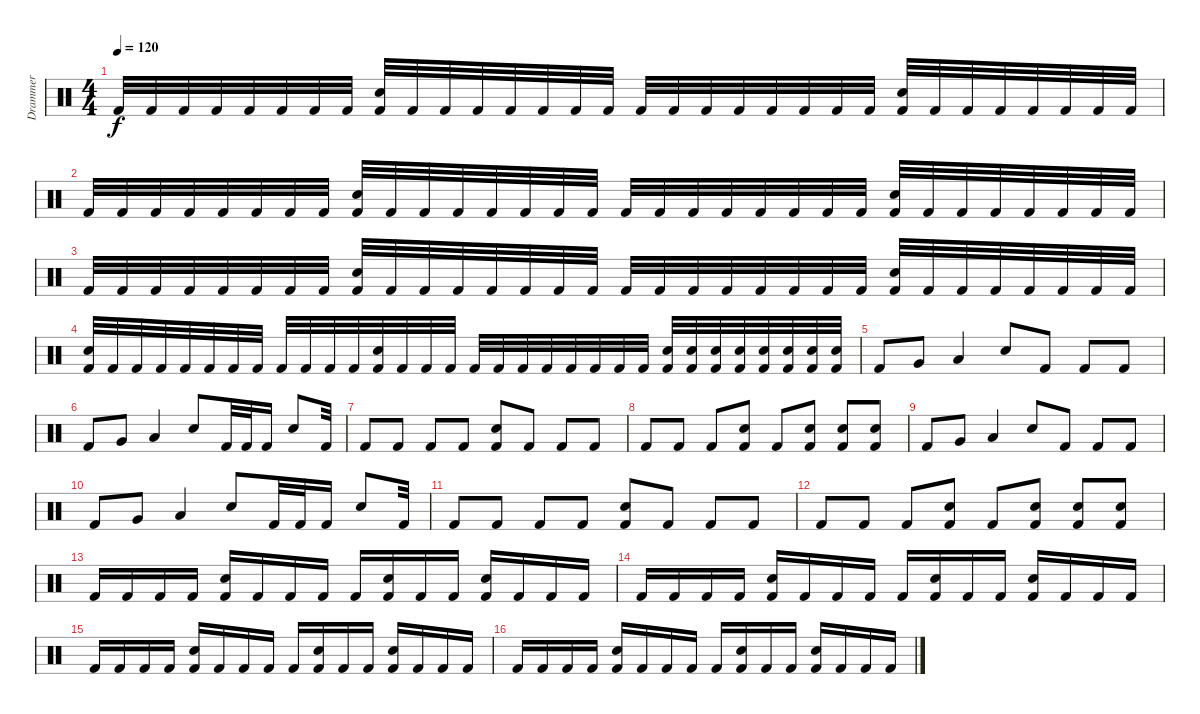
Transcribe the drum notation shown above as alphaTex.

\track ("Drammer" "Drammer") {instrument percussion}
\staff {score}
\articulation defaults
\ts (4 4)
\tempo 120
\clef neutral
\ks c "Kick (hit) 2".32{dy f} "Kick (hit) 2".32 "Kick (hit) 2".32 "Kick (hit) 2".32 "Kick (hit) 2".32 "Kick (hit) 2".32 "Kick (hit) 2".32 "Kick (hit) 2".32
("Snare (hit) 2" "Kick (hit) 2").32 "Kick (hit) 2".32 "Kick (hit) 2".32 "Kick (hit) 2".32 "Kick (hit) 2".32 "Kick (hit) 2".32 "Kick (hit) 2".32 "Kick (hit) 2".32 "Kick (hit) 2".32 "Kick (hit) 2".32 "Kick (hit) 2".32 "Kick (hit) 2".32 "Kick (hit) 2".32 "Kick (hit) 2".32 "Kick (hit) 2".32 "Kick (hit) 2".32 ("Snare (hit) 2" "Kick (hit) 2").32 "Kick (hit) 2".32 "Kick (hit) 2".32 "Kick (hit) 2".32 "Kick (hit) 2".32 "Kick (hit) 2".32 "Kick (hit) 2".32 "Kick (hit) 2".32 |
"Kick (hit) 2".32 "Kick (hit) 2".32 "Kick (hit) 2".32 "Kick (hit) 2".32 "Kick (hit) 2".32 "Kick (hit) 2".32 "Kick (hit) 2".32 "Kick (hit) 2".32 ("Snare (hit) 2" "Kick (hit) 2").32 "Kick (hit) 2".32 "Kick (hit) 2".32 "Kick (hit) 2".32 "Kick (hit) 2".32 "Kick (hit) 2".32 "Kick (hit) 2".32 "Kick (hit) 2".32 "Kick (hit) 2".32 "Kick (hit) 2".32 "Kick (hit) 2".32 "Kick (hit) 2".32 "Kick (hit) 2".32 "Kick (hit) 2".32 "Kick (hit) 2".32 "Kick (hit) 2".32 ("Snare (hit) 2" "Kick (hit) 2").32 "Kick (hit) 2".32 "Kick (hit) 2".32 "Kick (hit) 2".32 "Kick (hit) 2".32 "Kick (hit) 2".32 "Kick (hit) 2".32 "Kick (hit) 2".32 |
"Kick (hit) 2".32 "Kick (hit) 2".32 "Kick (hit) 2".32 "Kick (hit) 2".32 "Kick (hit) 2".32 "Kick (hit) 2".32 "Kick (hit) 2".32 "Kick (hit) 2".32 ("Snare (hit) 2" "Kick (hit) 2").32 "Kick (hit) 2".32 "Kick (hit) 2".32 "Kick (hit) 2".32 "Kick (hit) 2".32 "Kick (hit) 2".32 "Kick (hit) 2".32 "Kick (hit) 2".32 "Kick (hit) 2".32 "Kick (hit) 2".32 "Kick (hit) 2".32 "Kick (hit) 2".32 "Kick (hit) 2".32 "Kick (hit) 2".32 "Kick (hit) 2".32 "Kick (hit) 2".32 ("Snare (hit) 2" "Kick (hit) 2").32 "Kick (hit) 2".32 "Kick (hit) 2".32 "Kick (hit) 2".32 "Kick (hit) 2".32 "Kick (hit) 2".32 "Kick (hit) 2".32 "Kick (hit) 2".32 |
("Snare (hit) 2" "Kick (hit) 2").32 "Kick (hit) 2".32 "Kick (hit) 2".32 "Kick (hit) 2".32 "Kick (hit) 2".32 "Kick (hit) 2".32 "Kick (hit) 2".32 "Kick (hit) 2".32 "Kick (hit) 2".32 "Kick (hit) 2".32 "Kick (hit) 2".32 "Kick (hit) 2".32 ("Snare (hit) 2" "Kick (hit) 2").32 "Kick (hit) 2".32 "Kick (hit) 2".32 "Kick (hit) 2".32 "Kick (hit) 2".32 "Kick (hit) 2".32 "Kick (hit) 2".32 "Kick (hit) 2".32 "Kick (hit) 2".32 "Kick (hit) 2".32 "Kick (hit) 2".32 "Kick (hit) 2".32 ("Snare (hit) 2" "Kick (hit) 2").32 ("Snare (hit) 2" "Kick (hit) 2").32 ("Snare (hit) 2" "Kick (hit) 2").32 ("Snare (hit) 2" "Kick (hit) 2").32 ("Snare (hit) 2" "Kick (hit) 2").32 ("Snare (hit) 2" "Kick (hit) 2").32 ("Snare (hit) 2" "Kick (hit) 2").32 ("Snare (hit) 2" "Kick (hit) 2").32 |
"Kick (hit) 2".8 "Very Low Tom (hit)".8 "Low Floor Tom (hit)".4 "Snare (hit) 2".8 "Kick (hit) 2".8 "Kick (hit) 2".8 "Kick (hit) 2".8 |
"Kick (hit) 2".8 "Very Low Tom (hit)".8 "Low Floor Tom (hit)".4 "Snare (hit) 2".8 "Kick (hit) 2".32 "Kick (hit) 2".32 "Kick (hit) 2".16 "Snare (hit) 2".8 "Kick (hit) 2".32 |
"Kick (hit) 2".8 "Kick (hit) 2".8 "Kick (hit) 2".8 "Kick (hit) 2".8 ("Snare (hit) 2" "Kick (hit) 2").8 "Kick (hit) 2".8 "Kick (hit) 2".8 "Kick (hit) 2".8 |
"Kick (hit) 2".8 "Kick (hit) 2".8 "Kick (hit) 2".8 ("Snare (hit) 2" "Kick (hit) 2").8 "Kick (hit) 2".8 ("Snare (hit) 2" "Kick (hit) 2").8 ("Snare (hit) 2" "Kick (hit) 2").8 ("Snare (hit) 2" "Kick (hit) 2").8 |
"Kick (hit) 2".8 "Very Low Tom (hit)".8 "Low Floor Tom (hit)".4 "Snare (hit) 2".8 "Kick (hit) 2".8 "Kick (hit) 2".8 "Kick (hit) 2".8 |
"Kick (hit) 2".8 "Very Low Tom (hit)".8 "Low Floor Tom (hit)".4 "Snare (hit) 2".8 "Kick (hit) 2".32 "Kick (hit) 2".32 "Kick (hit) 2".16 "Snare (hit) 2".8 "Kick (hit) 2".32 |
"Kick (hit) 2".8 "Kick (hit) 2".8 "Kick (hit) 2".8 "Kick (hit) 2".8 ("Snare (hit) 2" "Kick (hit) 2").8 "Kick (hit) 2".8 "Kick (hit) 2".8 "Kick (hit) 2".8 |
"Kick (hit) 2".8 "Kick (hit) 2".8 "Kick (hit) 2".8 ("Snare (hit) 2" "Kick (hit) 2").8 "Kick (hit) 2".8 ("Snare (hit) 2" "Kick (hit) 2").8 ("Snare (hit) 2" "Kick (hit) 2").8 ("Snare (hit) 2" "Kick (hit) 2").8 |
"Kick (hit) 2".16 "Kick (hit) 2".16 "Kick (hit) 2".16 "Kick (hit) 2".16 ("Snare (hit) 2" "Kick (hit) 2").16 "Kick (hit) 2".16 "Kick (hit) 2".16 "Kick (hit) 2".16 "Kick (hit) 2".16 ("Snare (hit) 2" "Kick (hit) 2").16 "Kick (hit) 2".16 "Kick (hit) 2".16 ("Snare (hit) 2" "Kick (hit) 2").16 "Kick (hit) 2".16 "Kick (hit) 2".16 "Kick (hit) 2".16 |
"Kick (hit) 2".16 "Kick (hit) 2".16 "Kick (hit) 2".16 "Kick (hit) 2".16 ("Snare (hit) 2" "Kick (hit) 2").16 "Kick (hit) 2".16 "Kick (hit) 2".16 "Kick (hit) 2".16 "Kick (hit) 2".16 ("Snare (hit) 2" "Kick (hit) 2").16 "Kick (hit) 2".16 "Kick (hit) 2".16 ("Snare (hit) 2" "Kick (hit) 2").16 "Kick (hit) 2".16 "Kick (hit) 2".16 "Kick (hit) 2".16 |
"Kick (hit) 2".16 "Kick (hit) 2".16 "Kick (hit) 2".16 "Kick (hit) 2".16 ("Snare (hit) 2" "Kick (hit) 2").16 "Kick (hit) 2".16 "Kick (hit) 2".16 "Kick (hit) 2".16 "Kick (hit) 2".16 ("Snare (hit) 2" "Kick (hit) 2").16 "Kick (hit) 2".16 "Kick (hit) 2".16 ("Snare (hit) 2" "Kick (hit) 2").16 "Kick (hit) 2".16 "Kick (hit) 2".16 "Kick (hit) 2".16 |
"Kick (hit) 2".16 "Kick (hit) 2".16 "Kick (hit) 2".16 "Kick (hit) 2".16 ("Snare (hit) 2" "Kick (hit) 2").16 "Kick (hit) 2".16 "Kick (hit) 2".16 "Kick (hit) 2".16 "Kick (hit) 2".16 ("Snare (hit) 2" "Kick (hit) 2").16 "Kick (hit) 2".16 "Kick (hit) 2".16 ("Snare (hit) 2" "Kick (hit) 2").16 "Kick (hit) 2".16 "Kick (hit) 2".16 "Kick (hit) 2".16
